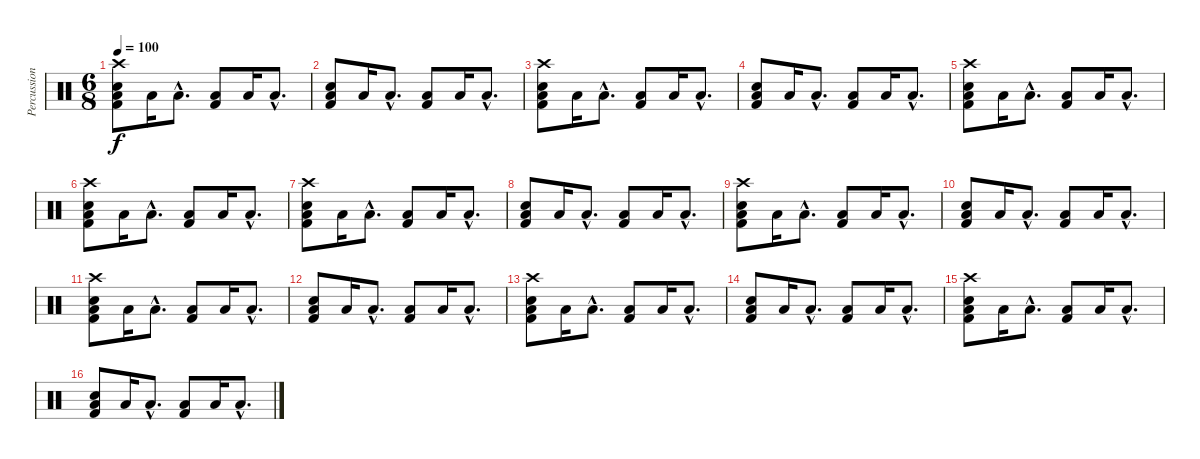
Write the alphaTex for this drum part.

\track ("Percussion" "Percussion") {instrument percussion}
\staff {score}
\articulation defaults
\ts (6 8)
\tempo 100
\clef neutral
\ks c
("Crash high (hit)" "Electric Snare (hit)" "Low Floor Tom (hit)" "Kick (hit) 2").8{dy f} "Low Floor Tom (hit)".16 "Low Floor Tom (hit)"{hac}.8{d} ("Low Floor Tom (hit)" "Kick (hit) 2").8 "Low Floor Tom (hit)".16 "Low Floor Tom (hit)"{hac}.8{d} |
("Electric Snare (hit)" "Low Floor Tom (hit)" "Kick (hit) 2").8 "Low Floor Tom (hit)".16 "Low Floor Tom (hit)"{hac}.8{d} ("Low Floor Tom (hit)" "Kick (hit) 2").8 "Low Floor Tom (hit)".16 "Low Floor Tom (hit)"{hac}.8{d} |
("Crash high (hit)" "Electric Snare (hit)" "Low Floor Tom (hit)" "Kick (hit) 2").8 "Low Floor Tom (hit)".16 "Low Floor Tom (hit)"{hac}.8{d} ("Low Floor Tom (hit)" "Kick (hit) 2").8 "Low Floor Tom (hit)".16 "Low Floor Tom (hit)"{hac}.8{d} |
("Electric Snare (hit)" "Low Floor Tom (hit)" "Kick (hit) 2").8 "Low Floor Tom (hit)".16 "Low Floor Tom (hit)"{hac}.8{d} ("Low Floor Tom (hit)" "Kick (hit) 2").8 "Low Floor Tom (hit)".16 "Low Floor Tom (hit)"{hac}.8{d} |
("Crash high (hit)" "Electric Snare (hit)" "Low Floor Tom (hit)" "Kick (hit) 2").8 "Low Floor Tom (hit)".16 "Low Floor Tom (hit)"{hac}.8{d} ("Low Floor Tom (hit)" "Kick (hit) 2").8 "Low Floor Tom (hit)".16 "Low Floor Tom (hit)"{hac}.8{d} |
("Crash high (hit)" "Electric Snare (hit)" "Low Floor Tom (hit)" "Kick (hit) 2").8 "Low Floor Tom (hit)".16 "Low Floor Tom (hit)"{hac}.8{d} ("Low Floor Tom (hit)" "Kick (hit) 2").8 "Low Floor Tom (hit)".16 "Low Floor Tom (hit)"{hac}.8{d} |
("Crash high (hit)" "Electric Snare (hit)" "Low Floor Tom (hit)" "Kick (hit) 2").8 "Low Floor Tom (hit)".16 "Low Floor Tom (hit)"{hac}.8{d} ("Low Floor Tom (hit)" "Kick (hit) 2").8 "Low Floor Tom (hit)".16 "Low Floor Tom (hit)"{hac}.8{d} |
("Electric Snare (hit)" "Low Floor Tom (hit)" "Kick (hit) 2").8 "Low Floor Tom (hit)".16 "Low Floor Tom (hit)"{hac}.8{d} ("Low Floor Tom (hit)" "Kick (hit) 2").8 "Low Floor Tom (hit)".16 "Low Floor Tom (hit)"{hac}.8{d} |
("Crash high (hit)" "Electric Snare (hit)" "Low Floor Tom (hit)" "Kick (hit) 2").8 "Low Floor Tom (hit)".16 "Low Floor Tom (hit)"{hac}.8{d} ("Low Floor Tom (hit)" "Kick (hit) 2").8 "Low Floor Tom (hit)".16 "Low Floor Tom (hit)"{hac}.8{d} |
("Electric Snare (hit)" "Low Floor Tom (hit)" "Kick (hit) 2").8 "Low Floor Tom (hit)".16 "Low Floor Tom (hit)"{hac}.8{d} ("Low Floor Tom (hit)" "Kick (hit) 2").8 "Low Floor Tom (hit)".16 "Low Floor Tom (hit)"{hac}.8{d} |
("Crash high (hit)" "Electric Snare (hit)" "Low Floor Tom (hit)" "Kick (hit) 2").8 "Low Floor Tom (hit)".16 "Low Floor Tom (hit)"{hac}.8{d} ("Low Floor Tom (hit)" "Kick (hit) 2").8 "Low Floor Tom (hit)".16 "Low Floor Tom (hit)"{hac}.8{d} |
("Electric Snare (hit)" "Low Floor Tom (hit)" "Kick (hit) 2").8 "Low Floor Tom (hit)".16 "Low Floor Tom (hit)"{hac}.8{d} ("Low Floor Tom (hit)" "Kick (hit) 2").8 "Low Floor Tom (hit)".16 "Low Floor Tom (hit)"{hac}.8{d} |
("Crash high (hit)" "Electric Snare (hit)" "Low Floor Tom (hit)" "Kick (hit) 2").8 "Low Floor Tom (hit)".16 "Low Floor Tom (hit)"{hac}.8{d} ("Low Floor Tom (hit)" "Kick (hit) 2").8 "Low Floor Tom (hit)".16 "Low Floor Tom (hit)"{hac}.8{d} |
("Electric Snare (hit)" "Low Floor Tom (hit)" "Kick (hit) 2").8 "Low Floor Tom (hit)".16 "Low Floor Tom (hit)"{hac}.8{d} ("Low Floor Tom (hit)" "Kick (hit) 2").8 "Low Floor Tom (hit)".16 "Low Floor Tom (hit)"{hac}.8{d} |
("Crash high (hit)" "Electric Snare (hit)" "Low Floor Tom (hit)" "Kick (hit) 2").8 "Low Floor Tom (hit)".16 "Low Floor Tom (hit)"{hac}.8{d} ("Low Floor Tom (hit)" "Kick (hit) 2").8 "Low Floor Tom (hit)".16 "Low Floor Tom (hit)"{hac}.8{d} |
("Electric Snare (hit)" "Low Floor Tom (hit)" "Kick (hit) 2").8 "Low Floor Tom (hit)".16 "Low Floor Tom (hit)"{hac}.8{d} ("Low Floor Tom (hit)" "Kick (hit) 2").8 "Low Floor Tom (hit)".16 "Low Floor Tom (hit)"{hac}.8{d}
